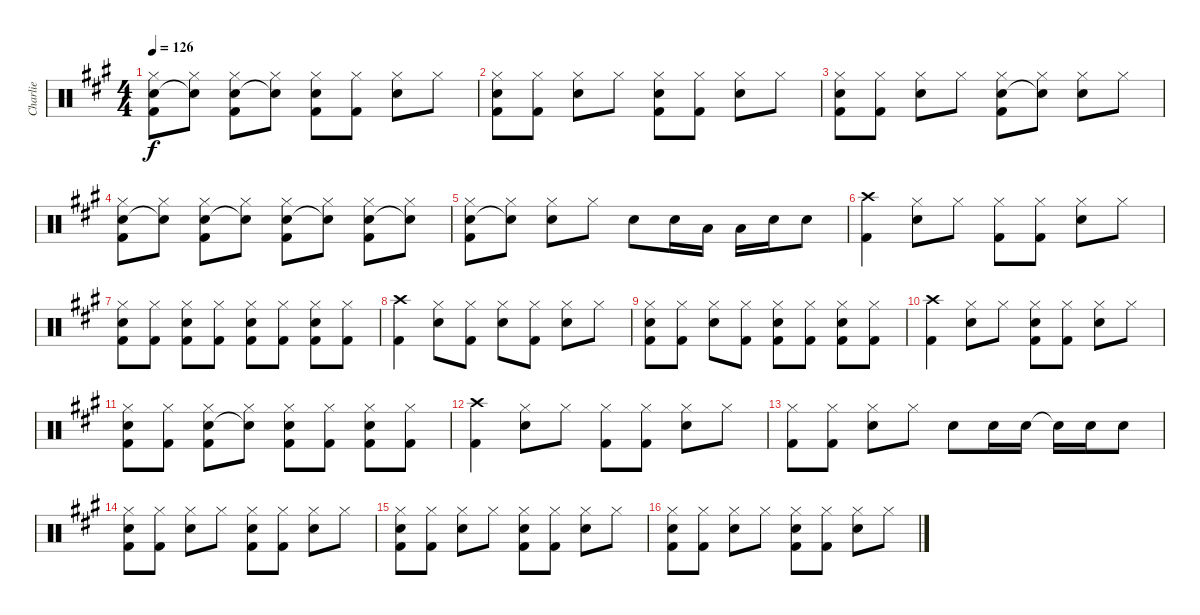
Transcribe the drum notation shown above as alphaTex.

\track ("Charlie" "Charlie") {instrument percussion}
\staff {score}
\articulation defaults
\ts (4 4)
\tempo 126
\clef neutral
\ks a
("Hi-Hat (closed)" "Snare (hit) 2" "Kick (hit) 2").8{dy f} ("Hi-Hat (closed)" "Snare (hit)"{t}).8 ("Hi-Hat (closed)" "Snare (hit) 2" "Kick (hit) 2").8 ("Hi-Hat (closed)" "Snare (hit)"{t}).8 ("Hi-Hat (closed)" "Snare (hit) 2" "Kick (hit) 2").8 ("Hi-Hat (closed)" "Kick (hit) 2").8 ("Hi-Hat (closed)" "Snare (hit) 2").8 "Hi-Hat (closed)".8 |
("Hi-Hat (closed)" "Snare (hit) 2" "Kick (hit) 2").8 ("Hi-Hat (closed)" "Kick (hit) 2").8 ("Hi-Hat (closed)" "Snare (hit) 2").8 "Hi-Hat (closed)".8 ("Hi-Hat (closed)" "Snare (hit) 2" "Kick (hit) 2").8 ("Hi-Hat (closed)" "Kick (hit) 2").8 ("Hi-Hat (closed)" "Snare (hit) 2").8 "Hi-Hat (closed)".8 |
("Hi-Hat (closed)" "Snare (hit) 2" "Kick (hit) 2").8 ("Hi-Hat (closed)" "Kick (hit) 2").8 ("Hi-Hat (closed)" "Snare (hit) 2").8 "Hi-Hat (closed)".8 ("Hi-Hat (closed)" "Snare (hit) 2" "Kick (hit) 2").8 ("Hi-Hat (closed)" "Snare (hit)"{t}).8 ("Hi-Hat (closed)" "Snare (hit) 2").8 "Hi-Hat (closed)".8 |
("Hi-Hat (closed)" "Snare (hit) 2" "Kick (hit) 2").8 ("Hi-Hat (closed)" "Snare (hit)"{t}).8 ("Hi-Hat (closed)" "Snare (hit) 2" "Kick (hit) 2").8 ("Hi-Hat (closed)" "Snare (hit)"{t}).8 ("Hi-Hat (closed)" "Snare (hit) 2" "Kick (hit) 2").8 ("Hi-Hat (closed)" "Snare (hit)"{t}).8 ("Hi-Hat (closed)" "Snare (hit) 2" "Kick (hit) 2").8 ("Hi-Hat (closed)" "Snare (hit)"{t}).8 |
("Hi-Hat (closed)" "Snare (hit) 2" "Kick (hit) 2").8 ("Hi-Hat (closed)" "Snare (hit)"{t}).8 ("Hi-Hat (closed)" "Snare (hit) 2").8 "Hi-Hat (closed)".8 "Snare (hit) 2".8 "Snare (hit) 2".16 "Low Tom (hit)".16 "Low Tom (hit)".16 "Snare (hit) 2".16 "Snare (hit) 2".8 |
("Crash high (hit)" "Kick (hit) 2").4 ("Hi-Hat (closed)" "Snare (hit) 2").8 "Hi-Hat (closed)".8 ("Hi-Hat (closed)" "Kick (hit) 2").8 ("Hi-Hat (closed)" "Kick (hit) 2").8 ("Hi-Hat (closed)" "Snare (hit) 2").8 "Hi-Hat (closed)".8 |
("Hi-Hat (closed)" "Snare (hit) 2" "Kick (hit) 2").8 ("Hi-Hat (closed)" "Kick (hit) 2").8 ("Hi-Hat (closed)" "Snare (hit) 2" "Kick (hit) 2").8 ("Hi-Hat (closed)" "Kick (hit) 2").8 ("Hi-Hat (closed)" "Snare (hit) 2" "Kick (hit) 2").8 ("Hi-Hat (closed)" "Kick (hit) 2").8 ("Hi-Hat (closed)" "Snare (hit) 2" "Kick (hit) 2").8 ("Hi-Hat (closed)" "Kick (hit) 2").8 |
("Crash high (hit)" "Kick (hit) 2").4 ("Hi-Hat (closed)" "Snare (hit) 2").8 ("Hi-Hat (closed)" "Kick (hit) 2").8 ("Hi-Hat (closed)" "Snare (hit) 2").8 ("Hi-Hat (closed)" "Kick (hit) 2").8 ("Hi-Hat (closed)" "Snare (hit) 2").8 "Hi-Hat (closed)".8 |
("Hi-Hat (closed)" "Snare (hit) 2" "Kick (hit) 2").8 ("Hi-Hat (closed)" "Kick (hit) 2").8 ("Hi-Hat (closed)" "Snare (hit) 2").8 ("Hi-Hat (closed)" "Kick (hit) 2").8 ("Hi-Hat (closed)" "Snare (hit) 2" "Kick (hit) 2").8 ("Hi-Hat (closed)" "Kick (hit) 2").8 ("Hi-Hat (closed)" "Snare (hit) 2" "Kick (hit) 2").8 ("Hi-Hat (closed)" "Kick (hit) 2").8 |
("Crash high (hit)" "Kick (hit) 2").4 ("Hi-Hat (closed)" "Snare (hit) 2").8 "Hi-Hat (closed)".8 ("Hi-Hat (closed)" "Snare (hit) 2" "Kick (hit) 2").8 ("Hi-Hat (closed)" "Kick (hit) 2").8 ("Hi-Hat (closed)" "Snare (hit) 2").8 "Hi-Hat (closed)".8 |
("Hi-Hat (closed)" "Snare (hit) 2" "Kick (hit) 2").8 ("Hi-Hat (closed)" "Kick (hit) 2").8 ("Hi-Hat (closed)" "Snare (hit) 2" "Kick (hit) 2").8 ("Hi-Hat (closed)" "Snare (hit)"{t}).8 ("Hi-Hat (closed)" "Snare (hit) 2" "Kick (hit) 2").8 ("Hi-Hat (closed)" "Kick (hit) 2").8 ("Hi-Hat (closed)" "Snare (hit) 2" "Kick (hit) 2").8 ("Hi-Hat (closed)" "Kick (hit) 2").8 |
("Crash high (hit)" "Kick (hit) 2").4 ("Hi-Hat (closed)" "Snare (hit) 2").8 "Hi-Hat (closed)".8 ("Hi-Hat (closed)" "Kick (hit) 2").8 ("Hi-Hat (closed)" "Kick (hit) 2").8 ("Hi-Hat (closed)" "Snare (hit) 2").8 "Hi-Hat (closed)".8 |
("Hi-Hat (closed)" "Kick (hit) 2").8 ("Hi-Hat (closed)" "Kick (hit) 2").8 ("Hi-Hat (closed)" "Snare (hit) 2").8 "Hi-Hat (closed)".8 "Snare (hit) 2".8 "Snare (hit) 2".16 "Snare (hit) 2".16 "Snare (hit)"{t}.16 "Snare (hit) 2".16 "Snare (hit) 2".8 |
("Hi-Hat (closed)" "Snare (hit) 2" "Kick (hit) 2").8 ("Hi-Hat (closed)" "Kick (hit) 2").8 ("Hi-Hat (closed)" "Snare (hit) 2").8 "Hi-Hat (closed)".8 ("Hi-Hat (closed)" "Snare (hit) 2" "Kick (hit) 2").8 ("Hi-Hat (closed)" "Kick (hit) 2").8 ("Hi-Hat (closed)" "Snare (hit) 2").8 "Hi-Hat (closed)".8 |
("Hi-Hat (closed)" "Snare (hit) 2" "Kick (hit) 2").8 ("Hi-Hat (closed)" "Kick (hit) 2").8 ("Hi-Hat (closed)" "Snare (hit) 2").8 "Hi-Hat (closed)".8 ("Hi-Hat (closed)" "Snare (hit) 2" "Kick (hit) 2").8 ("Hi-Hat (closed)" "Kick (hit) 2").8 ("Hi-Hat (closed)" "Snare (hit) 2").8 "Hi-Hat (closed)".8 |
("Hi-Hat (closed)" "Snare (hit) 2" "Kick (hit) 2").8 ("Hi-Hat (closed)" "Kick (hit) 2").8 ("Hi-Hat (closed)" "Snare (hit) 2").8 "Hi-Hat (closed)".8 ("Hi-Hat (closed)" "Snare (hit) 2" "Kick (hit) 2").8 ("Hi-Hat (closed)" "Kick (hit) 2").8 ("Hi-Hat (closed)" "Snare (hit) 2").8 "Hi-Hat (closed)".8
